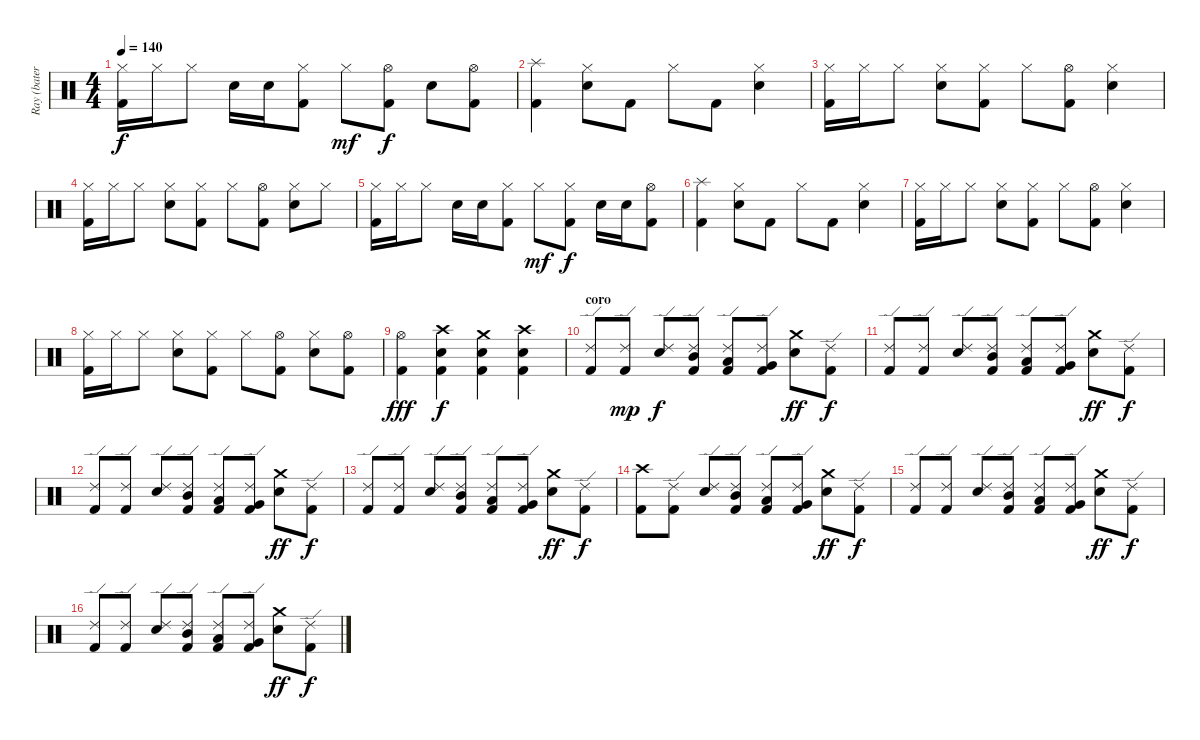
\track ("Ray (batería)" "Ray (bater") {instrument percussion}
\staff {score}
\articulation defaults
\ts (4 4)
\tempo 140
\clef neutral
\ks c
("Hi-Hat (closed)" "Kick (hit) 2").16{dy f} "Hi-Hat (closed)".16 "Hi-Hat (closed)".8 "Snare (hit) 2".16 "Snare (hit) 2".16 ("Hi-Hat (closed)" "Kick (hit) 2").8 "Hi-Hat (closed)".8{dy mf} ("Hi-Hat (open)" "Kick (hit) 2").8{dy f} "Snare (hit) 2".8 ("Hi-Hat (open)" "Kick (hit) 2").8 |
("Splash (hit)" "Kick (hit) 2").4 ("Hi-Hat (closed)" "Snare (hit) 2").8 "Kick (hit) 2".8 "Hi-Hat (closed)".8 "Kick (hit) 2".8 ("Hi-Hat (closed)" "Snare (hit) 2").4 |
("Hi-Hat (closed)" "Kick (hit) 2").16 "Hi-Hat (closed)".16 "Hi-Hat (closed)".8 ("Hi-Hat (closed)" "Snare (hit) 2").8 ("Hi-Hat (closed)" "Kick (hit) 2").8 "Hi-Hat (closed)".8 ("Hi-Hat (open)" "Kick (hit) 2").8 ("Hi-Hat (closed)" "Snare (hit) 2").4 |
("Hi-Hat (closed)" "Kick (hit) 2").16 "Hi-Hat (closed)".16 "Hi-Hat (closed)".8 ("Hi-Hat (closed)" "Snare (hit) 2").8 ("Hi-Hat (closed)" "Kick (hit) 2").8 "Hi-Hat (closed)".8 ("Hi-Hat (open)" "Kick (hit) 2").8 ("Hi-Hat (closed)" "Snare (hit) 2").8 "Hi-Hat (closed)".8 |
("Hi-Hat (closed)" "Kick (hit) 2").16 "Hi-Hat (closed)".16 "Hi-Hat (closed)".8 "Snare (hit) 2".16 "Snare (hit) 2".16 ("Hi-Hat (closed)" "Kick (hit) 2").8 "Hi-Hat (closed)".8{dy mf} ("Hi-Hat (closed)" "Kick (hit) 2").8{dy f} "Snare (hit) 2".16 "Snare (hit) 2".16 ("Hi-Hat (open)" "Kick (hit) 2").8 |
("Splash (hit)" "Kick (hit) 2").4 ("Hi-Hat (closed)" "Snare (hit) 2").8 "Kick (hit) 2".8 "Hi-Hat (closed)".8 "Kick (hit) 2".8 ("Hi-Hat (closed)" "Snare (hit) 2").4 |
("Hi-Hat (closed)" "Kick (hit) 2").16 "Hi-Hat (closed)".16 "Hi-Hat (closed)".8 ("Hi-Hat (closed)" "Snare (hit) 2").8 ("Hi-Hat (closed)" "Kick (hit) 2").8 "Hi-Hat (closed)".8 ("Hi-Hat (open)" "Kick (hit) 2").8 ("Hi-Hat (closed)" "Snare (hit) 2").4 |
("Hi-Hat (closed)" "Kick (hit) 2").16 "Hi-Hat (closed)".16 "Hi-Hat (closed)".8 ("Hi-Hat (closed)" "Snare (hit) 2").8 ("Hi-Hat (closed)" "Kick (hit) 2").8 "Hi-Hat (closed)".8 ("Hi-Hat (open)" "Kick (hit) 2").8 ("Hi-Hat (closed)" "Snare (hit) 2").8 ("Hi-Hat (open)" "Kick (hit) 2").8 |
("Hi-Hat (open)" "Kick (hit) 2").4{dy fff} ("Crash high (hit)" "Snare (hit) 2" "Kick (hit) 2").4{dy f} ("Crash medium (hit)" "Snare (hit) 2" "Kick (hit) 2").4 ("Crash high (hit)" "Snare (hit) 2" "Kick (hit) 2").4 |
\section ("" "coro")
("Ride (edge) 2" "Kick (hit) 2").8 ("Ride (edge) 2" "Kick (hit) 2").8{dy mp} ("Ride (edge) 2" "Snare (hit) 2").8{dy f} ("Ride (edge) 2" "Mid Tom (hit)" "Kick (hit) 2").8 ("Ride (edge) 2" "Low Tom (hit)" "Kick (hit) 2").8 ("Ride (edge) 2" "Very Low Tom (hit)" "Kick (hit) 2").8 ("Crash medium (hit)" "Snare (hit) 2").8{dy ff} ("Ride (edge) 2" "Kick (hit) 2").8{dy f} |
("Ride (edge) 2" "Kick (hit) 2").8 ("Ride (edge) 2" "Kick (hit) 2").8 ("Ride (edge) 2" "Snare (hit) 2").8 ("Ride (edge) 2" "Mid Tom (hit)" "Kick (hit) 2").8 ("Ride (edge) 2" "Low Tom (hit)" "Kick (hit) 2").8 ("Ride (edge) 2" "Very Low Tom (hit)" "Kick (hit) 2").8 ("Crash medium (hit)" "Snare (hit) 2").8{dy ff} ("Ride (edge) 2" "Kick (hit) 2").8{dy f} |
("Ride (edge) 2" "Kick (hit) 2").8 ("Ride (edge) 2" "Kick (hit) 2").8 ("Ride (edge) 2" "Snare (hit) 2").8 ("Ride (edge) 2" "Mid Tom (hit)" "Kick (hit) 2").8 ("Ride (edge) 2" "Low Tom (hit)" "Kick (hit) 2").8 ("Ride (edge) 2" "Very Low Tom (hit)" "Kick (hit) 2").8 ("Crash medium (hit)" "Snare (hit) 2").8{dy ff} ("Ride (edge) 2" "Kick (hit) 2").8{dy f} |
("Ride (edge) 2" "Kick (hit) 2").8 ("Ride (edge) 2" "Kick (hit) 2").8 ("Ride (edge) 2" "Snare (hit) 2").8 ("Ride (edge) 2" "Mid Tom (hit)" "Kick (hit) 2").8 ("Ride (edge) 2" "Low Tom (hit)" "Kick (hit) 2").8 ("Ride (edge) 2" "Very Low Tom (hit)" "Kick (hit) 2").8 ("Crash medium (hit)" "Snare (hit) 2").8{dy ff} ("Ride (edge) 2" "Kick (hit) 2").8{dy f} |
("Crash high (hit)" "Kick (hit) 2").8 ("Ride (edge) 2" "Kick (hit) 2").8 ("Ride (edge) 2" "Snare (hit) 2").8 ("Ride (edge) 2" "Mid Tom (hit)" "Kick (hit) 2").8 ("Ride (edge) 2" "Low Tom (hit)" "Kick (hit) 2").8 ("Ride (edge) 2" "Very Low Tom (hit)" "Kick (hit) 2").8 ("Crash medium (hit)" "Snare (hit) 2").8{dy ff} ("Ride (edge) 2" "Kick (hit) 2").8{dy f} |
("Ride (edge) 2" "Kick (hit) 2").8 ("Ride (edge) 2" "Kick (hit) 2").8 ("Ride (edge) 2" "Snare (hit) 2").8 ("Ride (edge) 2" "Mid Tom (hit)" "Kick (hit) 2").8 ("Ride (edge) 2" "Low Tom (hit)" "Kick (hit) 2").8 ("Ride (edge) 2" "Very Low Tom (hit)" "Kick (hit) 2").8 ("Crash medium (hit)" "Snare (hit) 2").8{dy ff} ("Ride (edge) 2" "Kick (hit) 2").8{dy f} |
("Ride (edge) 2" "Kick (hit) 2").8 ("Ride (edge) 2" "Kick (hit) 2").8 ("Ride (edge) 2" "Snare (hit) 2").8 ("Ride (edge) 2" "Mid Tom (hit)" "Kick (hit) 2").8 ("Ride (edge) 2" "Low Tom (hit)" "Kick (hit) 2").8 ("Ride (edge) 2" "Very Low Tom (hit)" "Kick (hit) 2").8 ("Crash medium (hit)" "Snare (hit) 2").8{dy ff} ("Ride (edge) 2" "Kick (hit) 2").8{dy f}
